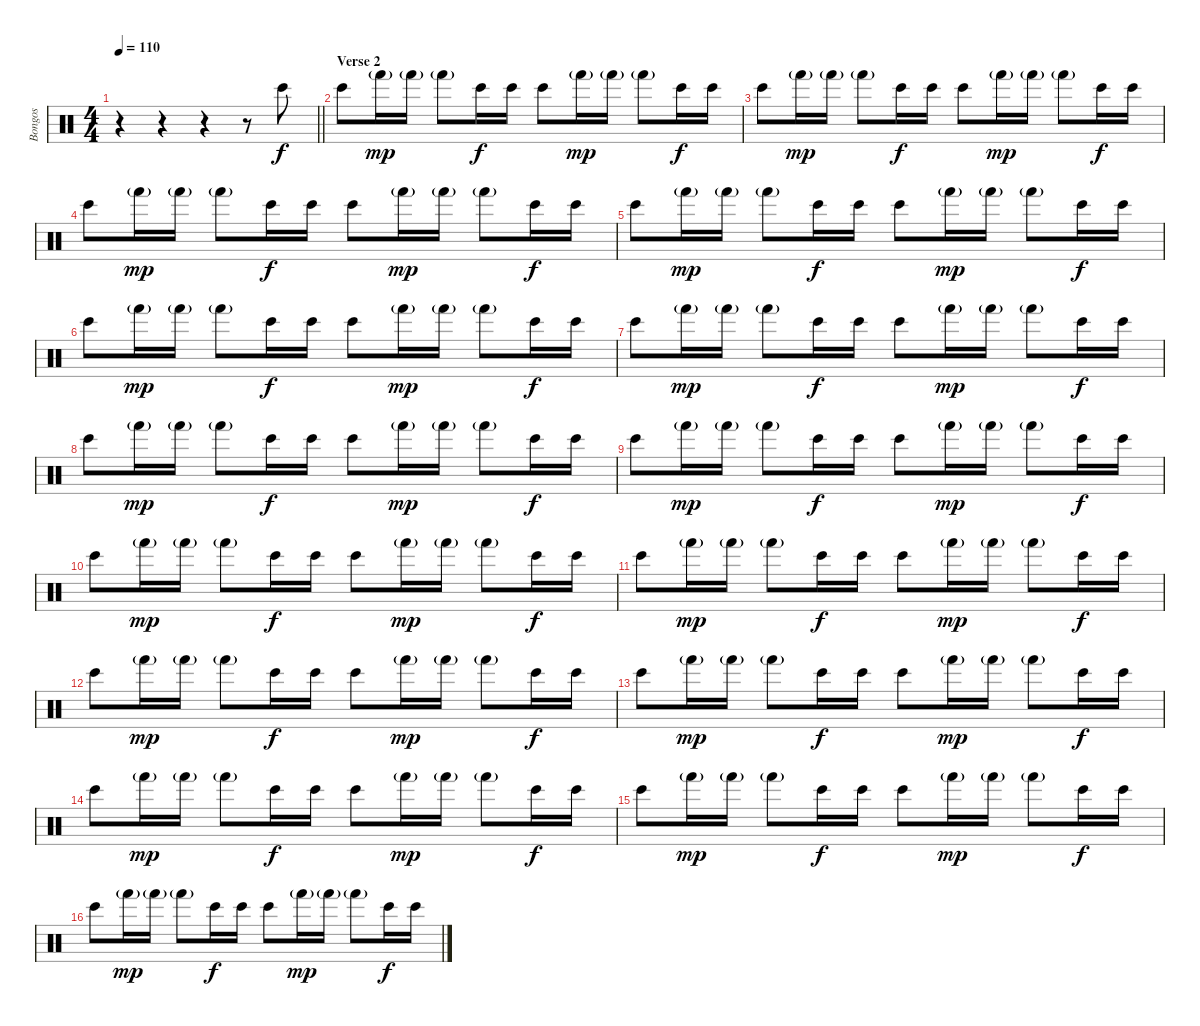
\track ("Bongos" "Bongos") {instrument percussion}
\staff {score}
\articulation defaults
\ts (4 4)
\tempo 110
\clef neutral
\barLineRight lightlight
\ks c
r.4{dy f} r.4 r.4 r.8 "Bongo High (hit)".8 |
\section ("" "Verse 2")
"Bongo High (hit)".8{volume 12} "Hand (hit)"{g}.16{dy mp} "Hand (hit)"{g}.16 "Hand (hit)"{g}.8 "Bongo High (hit)".16{dy f} "Bongo High (hit)".16 "Bongo High (hit)".8 "Hand (hit)"{g}.16{dy mp} "Hand (hit)"{g}.16 "Hand (hit)"{g}.8 "Bongo High (hit)".16{dy f} "Bongo High (hit)".16 |
"Bongo High (hit)".8 "Hand (hit)"{g}.16{dy mp} "Hand (hit)"{g}.16 "Hand (hit)"{g}.8 "Bongo High (hit)".16{dy f} "Bongo High (hit)".16 "Bongo High (hit)".8 "Hand (hit)"{g}.16{dy mp} "Hand (hit)"{g}.16 "Hand (hit)"{g}.8 "Bongo High (hit)".16{dy f} "Bongo High (hit)".16 |
"Bongo High (hit)".8 "Hand (hit)"{g}.16{dy mp} "Hand (hit)"{g}.16 "Hand (hit)"{g}.8 "Bongo High (hit)".16{dy f} "Bongo High (hit)".16 "Bongo High (hit)".8 "Hand (hit)"{g}.16{dy mp} "Hand (hit)"{g}.16 "Hand (hit)"{g}.8 "Bongo High (hit)".16{dy f} "Bongo High (hit)".16 |
"Bongo High (hit)".8 "Hand (hit)"{g}.16{dy mp} "Hand (hit)"{g}.16 "Hand (hit)"{g}.8 "Bongo High (hit)".16{dy f} "Bongo High (hit)".16 "Bongo High (hit)".8 "Hand (hit)"{g}.16{dy mp} "Hand (hit)"{g}.16 "Hand (hit)"{g}.8 "Bongo High (hit)".16{dy f} "Bongo High (hit)".16 |
"Bongo High (hit)".8 "Hand (hit)"{g}.16{dy mp} "Hand (hit)"{g}.16 "Hand (hit)"{g}.8 "Bongo High (hit)".16{dy f} "Bongo High (hit)".16 "Bongo High (hit)".8 "Hand (hit)"{g}.16{dy mp} "Hand (hit)"{g}.16 "Hand (hit)"{g}.8 "Bongo High (hit)".16{dy f} "Bongo High (hit)".16 |
"Bongo High (hit)".8 "Hand (hit)"{g}.16{dy mp} "Hand (hit)"{g}.16 "Hand (hit)"{g}.8 "Bongo High (hit)".16{dy f} "Bongo High (hit)".16 "Bongo High (hit)".8 "Hand (hit)"{g}.16{dy mp} "Hand (hit)"{g}.16 "Hand (hit)"{g}.8 "Bongo High (hit)".16{dy f} "Bongo High (hit)".16 |
"Bongo High (hit)".8 "Hand (hit)"{g}.16{dy mp} "Hand (hit)"{g}.16 "Hand (hit)"{g}.8 "Bongo High (hit)".16{dy f} "Bongo High (hit)".16 "Bongo High (hit)".8 "Hand (hit)"{g}.16{dy mp} "Hand (hit)"{g}.16 "Hand (hit)"{g}.8 "Bongo High (hit)".16{dy f} "Bongo High (hit)".16 |
"Bongo High (hit)".8 "Hand (hit)"{g}.16{dy mp} "Hand (hit)"{g}.16 "Hand (hit)"{g}.8 "Bongo High (hit)".16{dy f} "Bongo High (hit)".16 "Bongo High (hit)".8 "Hand (hit)"{g}.16{dy mp} "Hand (hit)"{g}.16 "Hand (hit)"{g}.8 "Bongo High (hit)".16{dy f} "Bongo High (hit)".16 |
"Bongo High (hit)".8 "Hand (hit)"{g}.16{dy mp} "Hand (hit)"{g}.16 "Hand (hit)"{g}.8 "Bongo High (hit)".16{dy f} "Bongo High (hit)".16 "Bongo High (hit)".8 "Hand (hit)"{g}.16{dy mp} "Hand (hit)"{g}.16 "Hand (hit)"{g}.8 "Bongo High (hit)".16{dy f} "Bongo High (hit)".16 |
"Bongo High (hit)".8 "Hand (hit)"{g}.16{dy mp} "Hand (hit)"{g}.16 "Hand (hit)"{g}.8 "Bongo High (hit)".16{dy f} "Bongo High (hit)".16 "Bongo High (hit)".8 "Hand (hit)"{g}.16{dy mp} "Hand (hit)"{g}.16 "Hand (hit)"{g}.8 "Bongo High (hit)".16{dy f} "Bongo High (hit)".16 |
"Bongo High (hit)".8 "Hand (hit)"{g}.16{dy mp} "Hand (hit)"{g}.16 "Hand (hit)"{g}.8 "Bongo High (hit)".16{dy f} "Bongo High (hit)".16 "Bongo High (hit)".8 "Hand (hit)"{g}.16{dy mp} "Hand (hit)"{g}.16 "Hand (hit)"{g}.8 "Bongo High (hit)".16{dy f} "Bongo High (hit)".16 |
"Bongo High (hit)".8 "Hand (hit)"{g}.16{dy mp} "Hand (hit)"{g}.16 "Hand (hit)"{g}.8 "Bongo High (hit)".16{dy f} "Bongo High (hit)".16 "Bongo High (hit)".8 "Hand (hit)"{g}.16{dy mp} "Hand (hit)"{g}.16 "Hand (hit)"{g}.8 "Bongo High (hit)".16{dy f} "Bongo High (hit)".16 |
"Bongo High (hit)".8 "Hand (hit)"{g}.16{dy mp} "Hand (hit)"{g}.16 "Hand (hit)"{g}.8 "Bongo High (hit)".16{dy f} "Bongo High (hit)".16 "Bongo High (hit)".8 "Hand (hit)"{g}.16{dy mp} "Hand (hit)"{g}.16 "Hand (hit)"{g}.8 "Bongo High (hit)".16{dy f} "Bongo High (hit)".16 |
"Bongo High (hit)".8 "Hand (hit)"{g}.16{dy mp} "Hand (hit)"{g}.16 "Hand (hit)"{g}.8 "Bongo High (hit)".16{dy f} "Bongo High (hit)".16 "Bongo High (hit)".8 "Hand (hit)"{g}.16{dy mp} "Hand (hit)"{g}.16 "Hand (hit)"{g}.8 "Bongo High (hit)".16{dy f} "Bongo High (hit)".16 |
"Bongo High (hit)".8 "Hand (hit)"{g}.16{dy mp} "Hand (hit)"{g}.16 "Hand (hit)"{g}.8 "Bongo High (hit)".16{dy f} "Bongo High (hit)".16 "Bongo High (hit)".8 "Hand (hit)"{g}.16{dy mp} "Hand (hit)"{g}.16 "Hand (hit)"{g}.8 "Bongo High (hit)".16{dy f} "Bongo High (hit)".16
